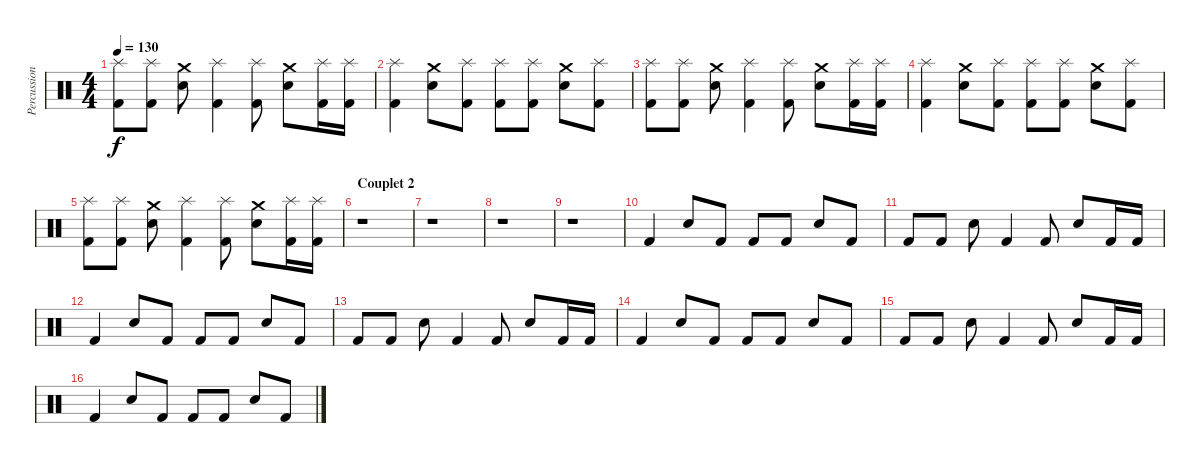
\track ("Percussions" "Percussion") {instrument percussion}
\staff {score}
\articulation defaults
\ts (4 4)
\tempo 130
\clef neutral
\ks c
("Splash (hit)" "Kick (hit) 2").8{dy f} ("Splash (hit)" "Kick (hit) 2").8 ("Crash medium (hit)" "Snare (hit) 2").8 ("Splash (hit)" "Kick (hit) 2").4 ("Splash (hit)" "Kick (hit) 2").8 ("Crash medium (hit)" "Snare (hit) 2").8 ("Splash (hit)" "Kick (hit) 2").16 ("Splash (hit)" "Kick (hit) 2").16 |
("Splash (hit)" "Kick (hit) 2").4 ("Crash medium (hit)" "Snare (hit) 2").8 ("Splash (hit)" "Kick (hit) 2").8 ("Splash (hit)" "Kick (hit) 2").8 ("Splash (hit)" "Kick (hit) 2").8 ("Crash medium (hit)" "Snare (hit) 2").8 ("Splash (hit)" "Kick (hit) 2").8 |
("Splash (hit)" "Kick (hit) 2").8 ("Splash (hit)" "Kick (hit) 2").8 ("Crash medium (hit)" "Snare (hit) 2").8 ("Splash (hit)" "Kick (hit) 2").4 ("Splash (hit)" "Kick (hit) 2").8 ("Crash medium (hit)" "Snare (hit) 2").8 ("Splash (hit)" "Kick (hit) 2").16 ("Splash (hit)" "Kick (hit) 2").16 |
("Splash (hit)" "Kick (hit) 2").4 ("Crash medium (hit)" "Snare (hit) 2").8 ("Splash (hit)" "Kick (hit) 2").8 ("Splash (hit)" "Kick (hit) 2").8 ("Splash (hit)" "Kick (hit) 2").8 ("Crash medium (hit)" "Snare (hit) 2").8 ("Splash (hit)" "Kick (hit) 2").8 |
("Splash (hit)" "Kick (hit) 2").8 ("Splash (hit)" "Kick (hit) 2").8 ("Crash medium (hit)" "Snare (hit) 2").8 ("Splash (hit)" "Kick (hit) 2").4 ("Splash (hit)" "Kick (hit) 2").8 ("Crash medium (hit)" "Snare (hit) 2").8 ("Splash (hit)" "Kick (hit) 2").16 ("Splash (hit)" "Kick (hit) 2").16 |
\section ("" "Couplet 2")
r.1 |
r.1 |
r.1 |
r.1 |
"Kick (hit) 2".4 "Snare (hit) 2".8 "Kick (hit) 2".8 "Kick (hit) 2".8 "Kick (hit) 2".8 "Snare (hit) 2".8 "Kick (hit) 2".8 |
"Kick (hit) 2".8 "Kick (hit) 2".8 "Snare (hit) 2".8 "Kick (hit) 2".4 "Kick (hit) 2".8 "Snare (hit) 2".8 "Kick (hit) 2".16 "Kick (hit) 2".16 |
"Kick (hit) 2".4 "Snare (hit) 2".8 "Kick (hit) 2".8 "Kick (hit) 2".8 "Kick (hit) 2".8 "Snare (hit) 2".8 "Kick (hit) 2".8 |
"Kick (hit) 2".8 "Kick (hit) 2".8 "Snare (hit) 2".8 "Kick (hit) 2".4 "Kick (hit) 2".8 "Snare (hit) 2".8 "Kick (hit) 2".16 "Kick (hit) 2".16 |
"Kick (hit) 2".4 "Snare (hit) 2".8 "Kick (hit) 2".8 "Kick (hit) 2".8 "Kick (hit) 2".8 "Snare (hit) 2".8 "Kick (hit) 2".8 |
"Kick (hit) 2".8 "Kick (hit) 2".8 "Snare (hit) 2".8 "Kick (hit) 2".4 "Kick (hit) 2".8 "Snare (hit) 2".8 "Kick (hit) 2".16 "Kick (hit) 2".16 |
"Kick (hit) 2".4 "Snare (hit) 2".8 "Kick (hit) 2".8 "Kick (hit) 2".8 "Kick (hit) 2".8 "Snare (hit) 2".8 "Kick (hit) 2".8
